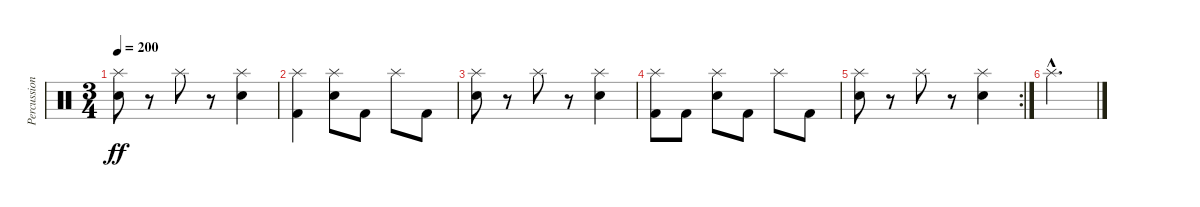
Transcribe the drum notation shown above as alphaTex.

\track ("Percussion" "Percussion") {instrument percussion}
\staff {score}
\articulation defaults
\ts (3 4)
\tempo 200
\clef neutral
\ks c
("Splash (hit)" "Electric Snare (hit)").8{dy ff} r.8 "Splash (hit)".8 r.8 ("Splash (hit)" "Electric Snare (hit)").4 |
("Splash (hit)" "Kick (hit) 2").4 ("Splash (hit)" "Electric Snare (hit)").8 "Kick (hit) 2".8 "Splash (hit)".8 "Kick (hit) 2".8 |
("Splash (hit)" "Electric Snare (hit)").8 r.8 "Splash (hit)".8 r.8 ("Splash (hit)" "Electric Snare (hit)").4 |
("Splash (hit)" "Kick (hit) 2").8 "Kick (hit) 2".8 ("Splash (hit)" "Electric Snare (hit)").8 "Kick (hit) 2".8 "Splash (hit)".8 "Kick (hit) 2".8 |
\rc 2
("Splash (hit)" "Electric Snare (hit)").8 r.8 "Splash (hit)".8 r.8 ("Splash (hit)" "Electric Snare (hit)").4 |
"Splash (hit)"{hac}.2{d}
